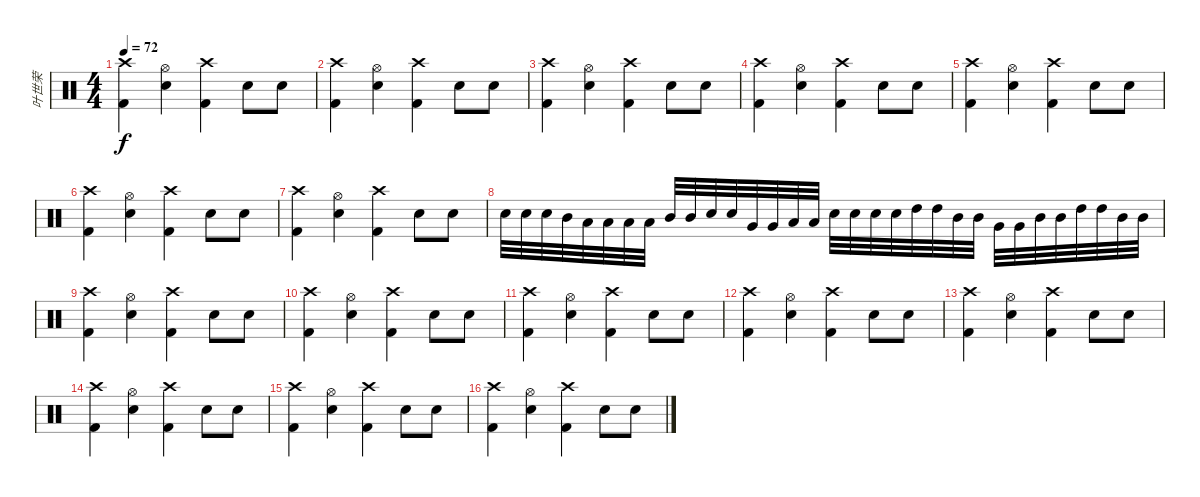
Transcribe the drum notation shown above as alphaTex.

\track ("叶世荣" "叶世荣") {instrument percussion}
\staff {score}
\articulation defaults
\ts (4 4)
\tempo 72
\clef neutral
\ks c
("Crash high (hit)" "Kick (hit) 2").4{dy f} ("Hi-Hat (open)" "Electric Snare (hit)").4 ("Crash high (hit)" "Kick (hit) 2").4 "Electric Snare (hit)".8 "Electric Snare (hit)".8 |
("Crash high (hit)" "Kick (hit) 2").4 ("Hi-Hat (open)" "Electric Snare (hit)").4 ("Crash high (hit)" "Kick (hit) 2").4 "Electric Snare (hit)".8 "Electric Snare (hit)".8 |
("Crash high (hit)" "Kick (hit) 2").4 ("Hi-Hat (open)" "Electric Snare (hit)").4 ("Crash high (hit)" "Kick (hit) 2").4 "Electric Snare (hit)".8 "Electric Snare (hit)".8 |
("Crash high (hit)" "Kick (hit) 2").4 ("Hi-Hat (open)" "Electric Snare (hit)").4 ("Crash high (hit)" "Kick (hit) 2").4 "Electric Snare (hit)".8 "Electric Snare (hit)".8 |
("Crash high (hit)" "Kick (hit) 2").4 ("Hi-Hat (open)" "Electric Snare (hit)").4 ("Crash high (hit)" "Kick (hit) 2").4 "Electric Snare (hit)".8 "Electric Snare (hit)".8 |
("Crash high (hit)" "Kick (hit) 2").4 ("Hi-Hat (open)" "Electric Snare (hit)").4 ("Crash high (hit)" "Kick (hit) 2").4 "Electric Snare (hit)".8 "Electric Snare (hit)".8 |
("Crash high (hit)" "Kick (hit) 2").4 ("Hi-Hat (open)" "Electric Snare (hit)").4 ("Crash high (hit)" "Kick (hit) 2").4 "Electric Snare (hit)".8 "Electric Snare (hit)".8 |
"Snare (hit) 2".32 "Snare (hit) 2".32 "Electric Snare (hit)".32 "Mid Tom (hit)".32 "Low Tom (hit)".32 "Low Tom (hit)".32 "Low Tom (hit)".32 "Low Tom (hit)".32 "Mid Tom (hit)".32 "Mid Tom (hit)".32 "Electric Snare (hit)".32 "Electric Snare (hit)".32 "Very Low Tom (hit)".32 "Very Low Tom (hit)".32 "Low Tom (hit)".32 "Low Tom (hit)".32 "Snare (hit) 2".32 "Snare (hit) 2".32 "Snare (hit) 2".32 "Snare (hit) 2".32 "High Tom (hit)".32 "High Tom (hit)".32 "Mid Tom (hit)".32 "Mid Tom (hit)".32 "Very Low Tom (hit)".32 "Very Low Tom (hit)".32 "Mid Tom (hit)".32 "Mid Tom (hit)".32 "High Tom (hit)".32 "High Tom (hit)".32 "Mid Tom (hit)".32 "Mid Tom (hit)".32 |
("Crash high (hit)" "Kick (hit) 2").4 ("Hi-Hat (open)" "Electric Snare (hit)").4 ("Crash high (hit)" "Kick (hit) 2").4 "Electric Snare (hit)".8 "Electric Snare (hit)".8 |
("Crash high (hit)" "Kick (hit) 2").4 ("Hi-Hat (open)" "Electric Snare (hit)").4 ("Crash high (hit)" "Kick (hit) 2").4 "Electric Snare (hit)".8 "Electric Snare (hit)".8 |
("Crash high (hit)" "Kick (hit) 2").4 ("Hi-Hat (open)" "Electric Snare (hit)").4 ("Crash high (hit)" "Kick (hit) 2").4 "Electric Snare (hit)".8 "Electric Snare (hit)".8 |
("Crash high (hit)" "Kick (hit) 2").4 ("Hi-Hat (open)" "Electric Snare (hit)").4 ("Crash high (hit)" "Kick (hit) 2").4 "Electric Snare (hit)".8 "Electric Snare (hit)".8 |
("Crash high (hit)" "Kick (hit) 2").4 ("Hi-Hat (open)" "Electric Snare (hit)").4 ("Crash high (hit)" "Kick (hit) 2").4 "Electric Snare (hit)".8 "Electric Snare (hit)".8 |
("Crash high (hit)" "Kick (hit) 2").4 ("Hi-Hat (open)" "Electric Snare (hit)").4 ("Crash high (hit)" "Kick (hit) 2").4 "Electric Snare (hit)".8 "Electric Snare (hit)".8 |
("Crash high (hit)" "Kick (hit) 2").4 ("Hi-Hat (open)" "Electric Snare (hit)").4 ("Crash high (hit)" "Kick (hit) 2").4 "Electric Snare (hit)".8 "Electric Snare (hit)".8 |
("Crash high (hit)" "Kick (hit) 2").4 ("Hi-Hat (open)" "Electric Snare (hit)").4 ("Crash high (hit)" "Kick (hit) 2").4 "Electric Snare (hit)".8 "Electric Snare (hit)".8
